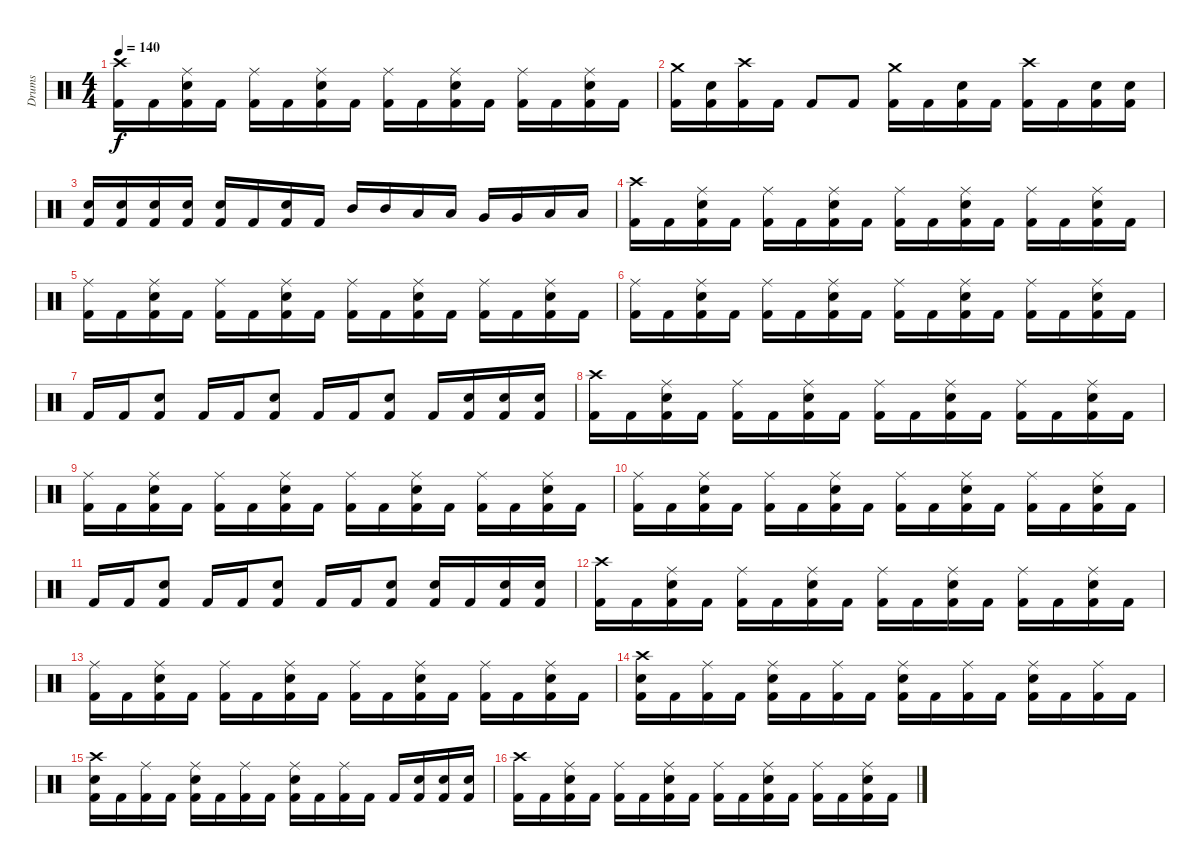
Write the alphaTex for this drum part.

\track ("Drums" "Drums") {instrument percussion}
\staff {score}
\articulation defaults
\ts (4 4)
\tempo 140
\clef neutral
\ks c
("Crash high (hit)" "Kick (hit) 2").16{dy f} "Kick (hit) 2".16 ("Ride (middle)" "Electric Snare (hit)" "Kick (hit) 2").16 "Kick (hit) 2".16 ("Ride (middle)" "Kick (hit) 2").16 "Kick (hit) 2".16 ("Ride (middle)" "Electric Snare (hit)" "Kick (hit) 2").16 "Kick (hit) 2".16 ("Ride (middle)" "Kick (hit) 2").16 "Kick (hit) 2".16 ("Ride (middle)" "Electric Snare (hit)" "Kick (hit) 2").16 "Kick (hit) 2".16 ("Ride (middle)" "Kick (hit) 2").16 "Kick (hit) 2".16 ("Ride (middle)" "Electric Snare (hit)" "Kick (hit) 2").16 "Kick (hit) 2".16 |
("Crash medium (hit)" "Kick (hit) 2").16 ("Electric Snare (hit)" "Kick (hit) 2").16 ("Crash high (hit)" "Kick (hit) 2").16 "Kick (hit) 2".16 "Kick (hit) 2".8 "Kick (hit) 2".8 ("Crash medium (hit)" "Kick (hit) 2").16 "Kick (hit) 2".16 ("Electric Snare (hit)" "Kick (hit) 2").16 "Kick (hit) 2".16 ("Crash high (hit)" "Kick (hit) 2").16 "Kick (hit) 2".16 ("Electric Snare (hit)" "Kick (hit) 2").16 ("Electric Snare (hit)" "Kick (hit) 2").16 |
("Electric Snare (hit)" "Kick (hit) 2").16 ("Electric Snare (hit)" "Kick (hit) 2").16 ("Electric Snare (hit)" "Kick (hit) 2").16 ("Electric Snare (hit)" "Kick (hit) 2").16 ("Electric Snare (hit)" "Kick (hit) 2").16 "Kick (hit) 2".16 ("Electric Snare (hit)" "Kick (hit) 2").16 "Kick (hit) 2".16 "Mid Tom (hit)".16 "Mid Tom (hit)".16 "Low Tom (hit)".16 "Low Tom (hit)".16 "Very Low Tom (hit)".16 "Very Low Tom (hit)".16 "Low Floor Tom (hit)".16 "Low Floor Tom (hit)".16 |
("Crash high (hit)" "Kick (hit) 2").16 "Kick (hit) 2".16 ("Ride (middle)" "Electric Snare (hit)" "Kick (hit) 2").16 "Kick (hit) 2".16 ("Ride (middle)" "Kick (hit) 2").16 "Kick (hit) 2".16 ("Ride (middle)" "Electric Snare (hit)" "Kick (hit) 2").16 "Kick (hit) 2".16 ("Ride (middle)" "Kick (hit) 2").16 "Kick (hit) 2".16 ("Ride (middle)" "Electric Snare (hit)" "Kick (hit) 2").16 "Kick (hit) 2".16 ("Ride (middle)" "Kick (hit) 2").16 "Kick (hit) 2".16 ("Ride (middle)" "Electric Snare (hit)" "Kick (hit) 2").16 "Kick (hit) 2".16 |
("Ride (middle)" "Kick (hit) 2").16 "Kick (hit) 2".16 ("Ride (middle)" "Electric Snare (hit)" "Kick (hit) 2").16 "Kick (hit) 2".16 ("Ride (middle)" "Kick (hit) 2").16 "Kick (hit) 2".16 ("Ride (middle)" "Electric Snare (hit)" "Kick (hit) 2").16 "Kick (hit) 2".16 ("Ride (middle)" "Kick (hit) 2").16 "Kick (hit) 2".16 ("Ride (middle)" "Electric Snare (hit)" "Kick (hit) 2").16 "Kick (hit) 2".16 ("Ride (middle)" "Kick (hit) 2").16 "Kick (hit) 2".16 ("Ride (middle)" "Electric Snare (hit)" "Kick (hit) 2").16 "Kick (hit) 2".16 |
("Ride (middle)" "Kick (hit) 2").16 "Kick (hit) 2".16 ("Ride (middle)" "Electric Snare (hit)" "Kick (hit) 2").16 "Kick (hit) 2".16 ("Ride (middle)" "Kick (hit) 2").16 "Kick (hit) 2".16 ("Ride (middle)" "Electric Snare (hit)" "Kick (hit) 2").16 "Kick (hit) 2".16 ("Ride (middle)" "Kick (hit) 2").16 "Kick (hit) 2".16 ("Ride (middle)" "Electric Snare (hit)" "Kick (hit) 2").16 "Kick (hit) 2".16 ("Ride (middle)" "Kick (hit) 2").16 "Kick (hit) 2".16 ("Ride (middle)" "Electric Snare (hit)" "Kick (hit) 2").16 "Kick (hit) 2".16 |
"Kick (hit) 2".16 "Kick (hit) 2".16 ("Electric Snare (hit)" "Kick (hit) 2").8 "Kick (hit) 2".16 "Kick (hit) 2".16 ("Electric Snare (hit)" "Kick (hit) 2").8 "Kick (hit) 2".16 "Kick (hit) 2".16 ("Electric Snare (hit)" "Kick (hit) 2").8 "Kick (hit) 2".16 ("Electric Snare (hit)" "Kick (hit) 2").16 ("Electric Snare (hit)" "Kick (hit) 2").16 ("Electric Snare (hit)" "Kick (hit) 2").16 |
("Crash high (hit)" "Kick (hit) 2").16 "Kick (hit) 2".16 ("Ride (middle)" "Electric Snare (hit)" "Kick (hit) 2").16 "Kick (hit) 2".16 ("Ride (middle)" "Kick (hit) 2").16 "Kick (hit) 2".16 ("Ride (middle)" "Electric Snare (hit)" "Kick (hit) 2").16 "Kick (hit) 2".16 ("Ride (middle)" "Kick (hit) 2").16 "Kick (hit) 2".16 ("Ride (middle)" "Electric Snare (hit)" "Kick (hit) 2").16 "Kick (hit) 2".16 ("Ride (middle)" "Kick (hit) 2").16 "Kick (hit) 2".16 ("Ride (middle)" "Electric Snare (hit)" "Kick (hit) 2").16 "Kick (hit) 2".16 |
("Ride (middle)" "Kick (hit) 2").16 "Kick (hit) 2".16 ("Ride (middle)" "Electric Snare (hit)" "Kick (hit) 2").16 "Kick (hit) 2".16 ("Ride (middle)" "Kick (hit) 2").16 "Kick (hit) 2".16 ("Ride (middle)" "Electric Snare (hit)" "Kick (hit) 2").16 "Kick (hit) 2".16 ("Ride (middle)" "Kick (hit) 2").16 "Kick (hit) 2".16 ("Ride (middle)" "Electric Snare (hit)" "Kick (hit) 2").16 "Kick (hit) 2".16 ("Ride (middle)" "Kick (hit) 2").16 "Kick (hit) 2".16 ("Ride (middle)" "Electric Snare (hit)" "Kick (hit) 2").16 "Kick (hit) 2".16 |
("Ride (middle)" "Kick (hit) 2").16 "Kick (hit) 2".16 ("Ride (middle)" "Electric Snare (hit)" "Kick (hit) 2").16 "Kick (hit) 2".16 ("Ride (middle)" "Kick (hit) 2").16 "Kick (hit) 2".16 ("Ride (middle)" "Electric Snare (hit)" "Kick (hit) 2").16 "Kick (hit) 2".16 ("Ride (middle)" "Kick (hit) 2").16 "Kick (hit) 2".16 ("Ride (middle)" "Electric Snare (hit)" "Kick (hit) 2").16 "Kick (hit) 2".16 ("Ride (middle)" "Kick (hit) 2").16 "Kick (hit) 2".16 ("Ride (middle)" "Electric Snare (hit)" "Kick (hit) 2").16 "Kick (hit) 2".16 |
"Kick (hit) 2".16 "Kick (hit) 2".16 ("Electric Snare (hit)" "Kick (hit) 2").8 "Kick (hit) 2".16 "Kick (hit) 2".16 ("Electric Snare (hit)" "Kick (hit) 2").8 "Kick (hit) 2".16 "Kick (hit) 2".16 ("Electric Snare (hit)" "Kick (hit) 2").8 ("Electric Snare (hit)" "Kick (hit) 2").16 "Kick (hit) 2".16 ("Electric Snare (hit)" "Kick (hit) 2").16 ("Electric Snare (hit)" "Kick (hit) 2").16 |
("Crash high (hit)" "Kick (hit) 2").16 "Kick (hit) 2".16 ("Ride (middle)" "Electric Snare (hit)" "Kick (hit) 2").16 "Kick (hit) 2".16 ("Ride (middle)" "Kick (hit) 2").16 "Kick (hit) 2".16 ("Ride (middle)" "Electric Snare (hit)" "Kick (hit) 2").16 "Kick (hit) 2".16 ("Ride (middle)" "Kick (hit) 2").16 "Kick (hit) 2".16 ("Ride (middle)" "Electric Snare (hit)" "Kick (hit) 2").16 "Kick (hit) 2".16 ("Ride (middle)" "Kick (hit) 2").16 "Kick (hit) 2".16 ("Ride (middle)" "Electric Snare (hit)" "Kick (hit) 2").16 "Kick (hit) 2".16 |
("Ride (middle)" "Kick (hit) 2").16 "Kick (hit) 2".16 ("Ride (middle)" "Electric Snare (hit)" "Kick (hit) 2").16 "Kick (hit) 2".16 ("Ride (middle)" "Kick (hit) 2").16 "Kick (hit) 2".16 ("Ride (middle)" "Electric Snare (hit)" "Kick (hit) 2").16 "Kick (hit) 2".16 ("Ride (middle)" "Kick (hit) 2").16 "Kick (hit) 2".16 ("Ride (middle)" "Electric Snare (hit)" "Kick (hit) 2").16 "Kick (hit) 2".16 ("Ride (middle)" "Kick (hit) 2").16 "Kick (hit) 2".16 ("Ride (middle)" "Electric Snare (hit)" "Kick (hit) 2").16 "Kick (hit) 2".16 |
("Crash high (hit)" "Electric Snare (hit)" "Kick (hit) 2").16 "Kick (hit) 2".16 ("Ride (middle)" "Kick (hit) 2").16 "Kick (hit) 2".16 ("Ride (middle)" "Electric Snare (hit)" "Kick (hit) 2").16 "Kick (hit) 2".16 ("Ride (middle)" "Kick (hit) 2").16 "Kick (hit) 2".16 ("Ride (middle)" "Electric Snare (hit)" "Kick (hit) 2").16 "Kick (hit) 2".16 ("Ride (middle)" "Kick (hit) 2").16 "Kick (hit) 2".16 ("Ride (middle)" "Electric Snare (hit)" "Kick (hit) 2").16 "Kick (hit) 2".16 ("Ride (middle)" "Kick (hit) 2").16 "Kick (hit) 2".16 |
("Crash high (hit)" "Electric Snare (hit)" "Kick (hit) 2").16 "Kick (hit) 2".16 ("Ride (middle)" "Kick (hit) 2").16 "Kick (hit) 2".16 ("Ride (middle)" "Electric Snare (hit)" "Kick (hit) 2").16 "Kick (hit) 2".16 ("Ride (middle)" "Kick (hit) 2").16 "Kick (hit) 2".16 ("Ride (middle)" "Electric Snare (hit)" "Kick (hit) 2").16 "Kick (hit) 2".16 ("Ride (middle)" "Kick (hit) 2").16 "Kick (hit) 2".16 "Kick (hit) 2".16 ("Electric Snare (hit)" "Kick (hit) 2").16 ("Electric Snare (hit)" "Kick (hit) 2").16 ("Electric Snare (hit)" "Kick (hit) 2").16 |
("Crash high (hit)" "Kick (hit) 2").16 "Kick (hit) 2".16 ("Ride (middle)" "Electric Snare (hit)" "Kick (hit) 2").16 "Kick (hit) 2".16 ("Ride (middle)" "Kick (hit) 2").16 "Kick (hit) 2".16 ("Ride (middle)" "Electric Snare (hit)" "Kick (hit) 2").16 "Kick (hit) 2".16 ("Ride (middle)" "Kick (hit) 2").16 "Kick (hit) 2".16 ("Ride (middle)" "Electric Snare (hit)" "Kick (hit) 2").16 "Kick (hit) 2".16 ("Ride (middle)" "Kick (hit) 2").16 "Kick (hit) 2".16 ("Ride (middle)" "Electric Snare (hit)" "Kick (hit) 2").16 "Kick (hit) 2".16
